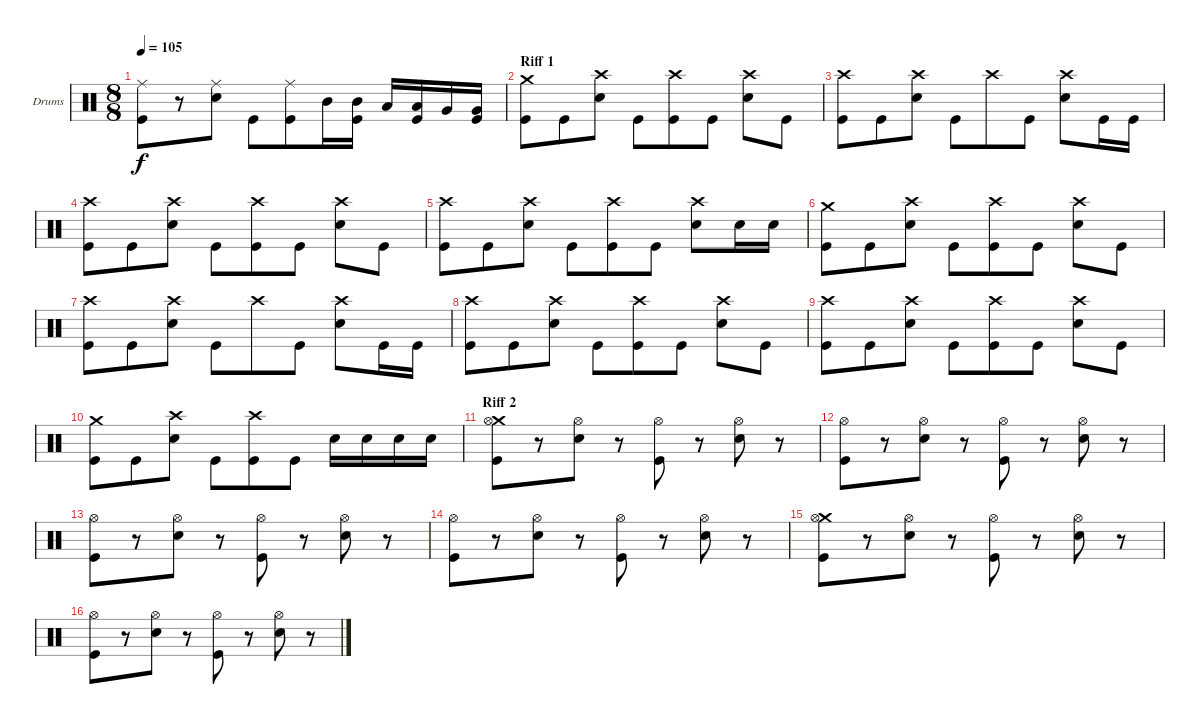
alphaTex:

\bracketExtendMode groupsimilarinstruments
\firstSystemTrackNameOrientation horizontal
\otherSystemsTrackNameOrientation horizontal
\track ("Drumkit" "Drums") {instrument percussion}
\staff {score}
\articulation defaults
\ts (8 8)
\tempo 105
\clef neutral
\ks c
("Ride (middle)" "Kick (hit)").8{dy f} r.8 ("Ride (middle)" "Snare (hit) 2").8 "Kick (hit)".8 ("Ride (middle)" "Kick (hit)").8 "Mid Tom (hit)".16 ("Mid Tom (hit)" "Kick (hit)").16 "Low Tom (hit)".16 ("Low Tom (hit)" "Kick (hit)").16 "Very Low Tom (hit)".16 ("Very Low Tom (hit)" "Kick (hit)").16 |
\section ("" "Riff 1")
("Crash medium (hit)" "Kick (hit)").8 "Kick (hit)".8 ("Crash high (hit)" "Snare (hit) 2").8 "Kick (hit)".8 ("Crash high (hit)" "Kick (hit)").8 "Kick (hit)".8 ("Crash high (hit)" "Snare (hit) 2").8 "Kick (hit)".8 |
("Crash high (hit)" "Kick (hit)").8 "Kick (hit)".8 ("Crash high (hit)" "Snare (hit) 2").8 "Kick (hit)".8 "Crash high (hit)".8 "Kick (hit)".8 ("Crash high (hit)" "Snare (hit) 2").8 "Kick (hit)".16 "Kick (hit)".16 |
("Crash high (hit)" "Kick (hit)").8 "Kick (hit)".8 ("Crash high (hit)" "Snare (hit) 2").8 "Kick (hit)".8 ("Crash high (hit)" "Kick (hit)").8 "Kick (hit)".8 ("Crash high (hit)" "Snare (hit) 2").8 "Kick (hit)".8 |
("Crash high (hit)" "Kick (hit)").8 "Kick (hit)".8 ("Crash high (hit)" "Snare (hit) 2").8 "Kick (hit)".8 ("Crash high (hit)" "Kick (hit)").8 "Kick (hit)".8 ("Crash high (hit)" "Snare (hit) 2").8 "Snare (hit) 2".16 "Snare (hit) 2".16 |
("Crash medium (hit)" "Kick (hit)").8 "Kick (hit)".8 ("Crash high (hit)" "Snare (hit) 2").8 "Kick (hit)".8 ("Crash high (hit)" "Kick (hit)").8 "Kick (hit)".8 ("Crash high (hit)" "Snare (hit) 2").8 "Kick (hit)".8 |
("Crash high (hit)" "Kick (hit)").8 "Kick (hit)".8 ("Crash high (hit)" "Snare (hit) 2").8 "Kick (hit)".8 "Crash high (hit)".8 "Kick (hit)".8 ("Crash high (hit)" "Snare (hit) 2").8 "Kick (hit)".16 "Kick (hit)".16 |
("Crash high (hit)" "Kick (hit)").8 "Kick (hit)".8 ("Crash high (hit)" "Snare (hit) 2").8 "Kick (hit)".8 ("Crash high (hit)" "Kick (hit)").8 "Kick (hit)".8 ("Crash high (hit)" "Snare (hit) 2").8 "Kick (hit)".8 |
("Crash high (hit)" "Kick (hit)").8 "Kick (hit)".8 ("Crash high (hit)" "Snare (hit) 2").8 "Kick (hit)".8 ("Crash high (hit)" "Kick (hit)").8 "Kick (hit)".8 ("Crash high (hit)" "Snare (hit) 2").8 "Kick (hit)".8 |
\section ("" "")
("Crash medium (hit)" "Kick (hit)").8 "Kick (hit)".8 ("Crash high (hit)" "Snare (hit) 2").8 "Kick (hit)".8 ("Crash high (hit)" "Kick (hit)").8 "Kick (hit)".8 "Snare (hit) 2".16 "Snare (hit) 2".16 "Snare (hit) 2".16 "Snare (hit) 2".16 |
\section ("" "Riff 2")
("Crash medium (hit)" "Hi-Hat (open)" "Kick (hit)").8 r.8 ("Hi-Hat (open)" "Snare (hit) 2").8 r.8 ("Hi-Hat (open)" "Kick (hit)").8 r.8 ("Hi-Hat (open)" "Snare (hit) 2").8 r.8 |
("Hi-Hat (open)" "Kick (hit)").8 r.8 ("Hi-Hat (open)" "Snare (hit) 2").8 r.8 ("Hi-Hat (open)" "Kick (hit)").8 r.8 ("Hi-Hat (open)" "Snare (hit) 2").8 r.8 |
("Hi-Hat (open)" "Kick (hit)").8 r.8 ("Hi-Hat (open)" "Snare (hit) 2").8 r.8 ("Hi-Hat (open)" "Kick (hit)").8 r.8 ("Hi-Hat (open)" "Snare (hit) 2").8 r.8 |
("Hi-Hat (open)" "Kick (hit)").8 r.8 ("Hi-Hat (open)" "Snare (hit) 2").8 r.8 ("Hi-Hat (open)" "Kick (hit)").8 r.8 ("Hi-Hat (open)" "Snare (hit) 2").8 r.8 |
("Crash medium (hit)" "Hi-Hat (open)" "Kick (hit)").8 r.8 ("Hi-Hat (open)" "Snare (hit) 2").8 r.8 ("Hi-Hat (open)" "Kick (hit)").8 r.8 ("Hi-Hat (open)" "Snare (hit) 2").8 r.8 |
("Hi-Hat (open)" "Kick (hit)").8 r.8 ("Hi-Hat (open)" "Snare (hit) 2").8 r.8 ("Hi-Hat (open)" "Kick (hit)").8 r.8 ("Hi-Hat (open)" "Snare (hit) 2").8 r.8
